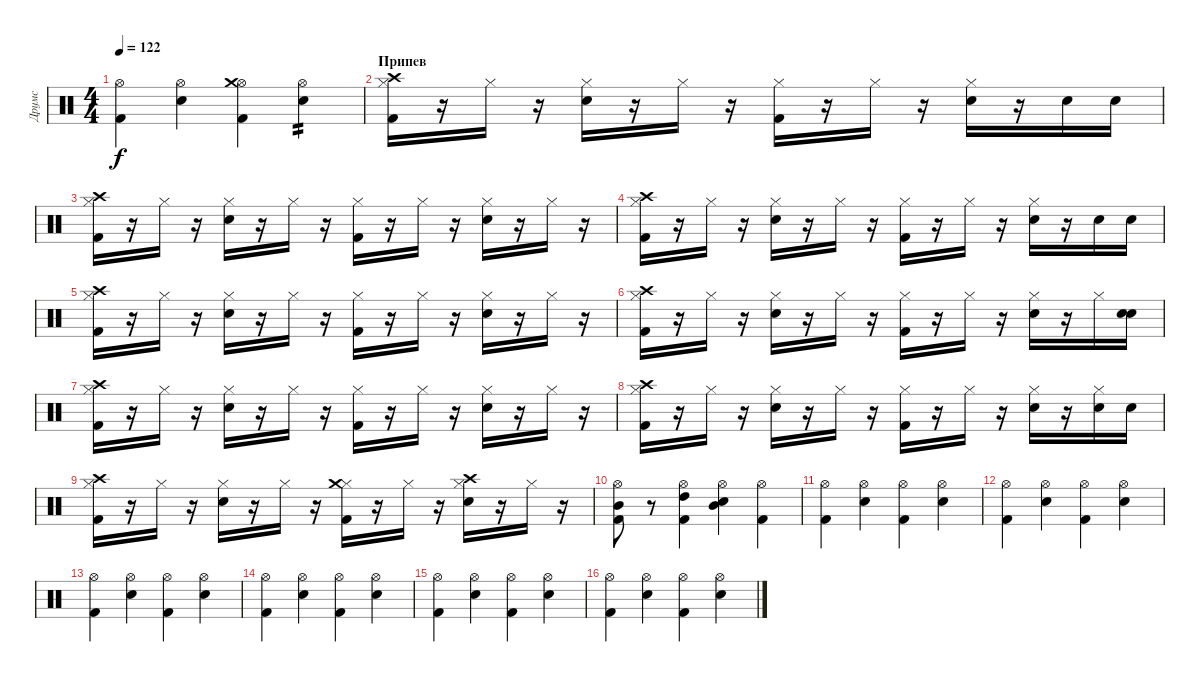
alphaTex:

\track ("Друмс" "Друмс") {instrument percussion}
\staff {score}
\articulation defaults
\ts (4 4)
\tempo 122
\clef neutral
\ks c
("Hi-Hat (open)" "Kick (hit) 2").4{dy f} ("Hi-Hat (open)" "Snare (hit) 2").4 ("Hi-Hat (open)" "Kick (hit) 2" "Crash medium (hit)").4 ("Hi-Hat (open)" "Snare (hit) 2").4{tp 2} |
\section ("" "Припев")
("Hi-Hat (closed)" "Kick (hit) 2" "Crash high (hit)").16 r.16 "Hi-Hat (closed)".16 r.16 ("Hi-Hat (closed)" "Snare (hit) 2").16 r.16 "Hi-Hat (closed)".16 r.16 ("Hi-Hat (closed)" "Kick (hit) 2").16 r.16 "Hi-Hat (closed)".16 r.16 ("Hi-Hat (closed)" "Snare (hit) 2").16 r.16 "Snare (hit) 2".16 "Snare (hit) 2".16 |
("Hi-Hat (closed)" "Kick (hit) 2" "Crash high (hit)").16 r.16 "Hi-Hat (closed)".16 r.16 ("Hi-Hat (closed)" "Snare (hit) 2").16 r.16 "Hi-Hat (closed)".16 r.16 ("Hi-Hat (closed)" "Kick (hit) 2").16 r.16 "Hi-Hat (closed)".16 r.16 ("Hi-Hat (closed)" "Snare (hit) 2").16 r.16 "Hi-Hat (closed)".16 r.16 |
("Hi-Hat (closed)" "Kick (hit) 2" "Crash high (hit)").16 r.16 "Hi-Hat (closed)".16 r.16 ("Hi-Hat (closed)" "Snare (hit) 2").16 r.16 "Hi-Hat (closed)".16 r.16 ("Hi-Hat (closed)" "Kick (hit) 2").16 r.16 "Hi-Hat (closed)".16 r.16 ("Hi-Hat (closed)" "Snare (hit) 2").16 r.16 "Snare (hit) 2".16 "Snare (hit) 2".16 |
("Hi-Hat (closed)" "Kick (hit) 2" "Crash high (hit)").16 r.16 "Hi-Hat (closed)".16 r.16 ("Hi-Hat (closed)" "Snare (hit) 2").16 r.16 "Hi-Hat (closed)".16 r.16 ("Hi-Hat (closed)" "Kick (hit) 2").16 r.16 "Hi-Hat (closed)".16 r.16 ("Hi-Hat (closed)" "Snare (hit) 2").16 r.16 "Hi-Hat (closed)".16 r.16 |
("Hi-Hat (closed)" "Kick (hit) 2" "Crash high (hit)").16 r.16 "Hi-Hat (closed)".16 r.16 ("Hi-Hat (closed)" "Snare (hit) 2").16 r.16 "Hi-Hat (closed)".16 r.16 ("Hi-Hat (closed)" "Kick (hit) 2").16 r.16 "Hi-Hat (closed)".16 r.16 ("Hi-Hat (closed)" "Snare (hit) 2").16 r.16 "Hi-Hat (closed)".16 ("Snare (hit) 2" "Snare (hit) 2").16 |
("Hi-Hat (closed)" "Kick (hit) 2" "Crash high (hit)").16 r.16 "Hi-Hat (closed)".16 r.16 ("Hi-Hat (closed)" "Snare (hit) 2").16 r.16 "Hi-Hat (closed)".16 r.16 ("Hi-Hat (closed)" "Kick (hit) 2").16 r.16 "Hi-Hat (closed)".16 r.16 ("Hi-Hat (closed)" "Snare (hit) 2").16 r.16 "Hi-Hat (closed)".16 r.16 |
("Hi-Hat (closed)" "Kick (hit) 2" "Crash high (hit)").16 r.16 "Hi-Hat (closed)".16 r.16 ("Hi-Hat (closed)" "Snare (hit) 2").16 r.16 "Hi-Hat (closed)".16 r.16 ("Hi-Hat (closed)" "Kick (hit) 2").16 r.16 "Hi-Hat (closed)".16 r.16 ("Hi-Hat (closed)" "Snare (hit) 2").16 r.16 ("Hi-Hat (closed)" "Snare (hit) 2").16 "Snare (hit) 2".16 |
("Hi-Hat (closed)" "Kick (hit) 2" "Crash high (hit)").16 r.16 "Hi-Hat (closed)".16 r.16 ("Hi-Hat (closed)" "Snare (hit) 2").16 r.16 "Hi-Hat (closed)".16 r.16 ("Hi-Hat (closed)" "Kick (hit) 2" "Crash medium (hit)").16 r.16 "Hi-Hat (closed)".16 r.16 ("Hi-Hat (closed)" "Snare (hit) 2" "Crash high (hit)").16 r.16 "Hi-Hat (closed)".16 r.16 |
("Mid Tom (hit)" "Hi-Hat (open)" "Kick (hit) 2").8 r.8 ("High Tom (hit)" "Kick (hit) 2" "Hi-Hat (open)").4 ("Mid Tom (hit)" "Snare (hit) 2" "Hi-Hat (open)").4 ("Kick (hit) 2" "Hi-Hat (open)").4 |
("Hi-Hat (open)" "Kick (hit) 2").4 ("Hi-Hat (open)" "Snare (hit) 2").4 ("Hi-Hat (open)" "Kick (hit) 2").4 ("Hi-Hat (open)" "Snare (hit) 2").4 |
("Hi-Hat (open)" "Kick (hit) 2").4 ("Hi-Hat (open)" "Snare (hit) 2").4 ("Hi-Hat (open)" "Kick (hit) 2").4 ("Hi-Hat (open)" "Snare (hit) 2").4 |
("Hi-Hat (open)" "Kick (hit) 2").4 ("Hi-Hat (open)" "Snare (hit) 2").4 ("Hi-Hat (open)" "Kick (hit) 2").4 ("Hi-Hat (open)" "Snare (hit) 2").4 |
("Hi-Hat (open)" "Kick (hit) 2").4 ("Hi-Hat (open)" "Snare (hit) 2").4 ("Hi-Hat (open)" "Kick (hit) 2").4 ("Hi-Hat (open)" "Snare (hit) 2").4 |
("Hi-Hat (open)" "Kick (hit) 2").4 ("Hi-Hat (open)" "Snare (hit) 2").4 ("Hi-Hat (open)" "Kick (hit) 2").4 ("Hi-Hat (open)" "Snare (hit) 2").4 |
("Hi-Hat (open)" "Kick (hit) 2").4 ("Hi-Hat (open)" "Snare (hit) 2").4 ("Hi-Hat (open)" "Kick (hit) 2").4 ("Hi-Hat (open)" "Snare (hit) 2").4
